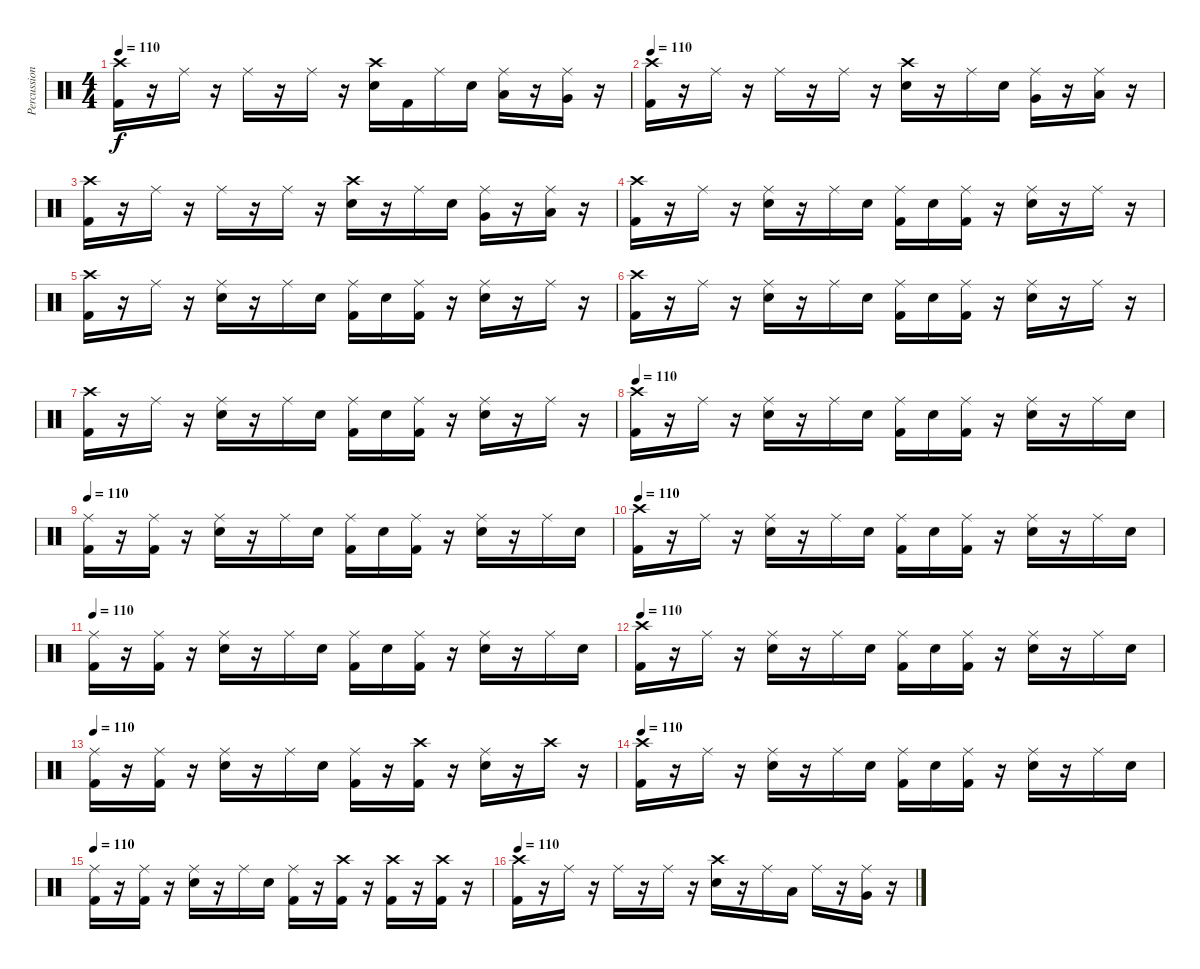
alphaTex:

\track ("Percussion" "Percussion") {instrument percussion}
\staff {score}
\articulation defaults
\ts (4 4)
\tempo 110
\clef neutral
\ks c
("Crash high (hit)" "Kick (hit) 2").16{dy f} r.16 "Ride (middle)".16 r.16 "Ride (middle)".16 r.16 "Ride (middle)".16 r.16 ("Crash high (hit)" "Electric Snare (hit)").16 "Kick (hit) 2".16 "Ride (middle)".16 "Electric Snare (hit)".16 ("Ride (middle)" "Low Tom (hit)").16 r.16 ("Ride (middle)" "Very Low Tom (hit)").16 r.16 |
\tempo 110
("Crash high (hit)" "Kick (hit) 2").16 r.16 "Ride (middle)".16 r.16 "Ride (middle)".16 r.16 "Ride (middle)".16 r.16 ("Crash high (hit)" "Electric Snare (hit)").16 r.16 "Ride (middle)".16 "Electric Snare (hit)".16 ("Ride (middle)" "Very Low Tom (hit)").16 r.16 ("Ride (middle)" "Low Floor Tom (hit)").16 r.16 |
("Crash high (hit)" "Kick (hit) 2").16 r.16 "Ride (middle)".16 r.16 "Ride (middle)".16 r.16 "Ride (middle)".16 r.16 ("Crash high (hit)" "Electric Snare (hit)").16 r.16 "Ride (middle)".16 "Electric Snare (hit)".16 ("Ride (middle)" "Very Low Tom (hit)").16 r.16 ("Ride (middle)" "Low Floor Tom (hit)").16 r.16 |
("Crash high (hit)" "Kick (hit) 2").16 r.16 "Ride (middle)".16 r.16 ("Ride (middle)" "Electric Snare (hit)").16 r.16 "Ride (middle)".16 "Electric Snare (hit)".16 ("Ride (middle)" "Kick (hit) 2").16 "Electric Snare (hit)".16 ("Ride (middle)" "Kick (hit) 2").16 r.16 ("Ride (middle)" "Electric Snare (hit)").16 r.16 "Ride (middle)".16 r.16 |
("Crash high (hit)" "Kick (hit) 2").16 r.16 "Ride (middle)".16 r.16 ("Ride (middle)" "Electric Snare (hit)").16 r.16 "Ride (middle)".16 "Electric Snare (hit)".16 ("Ride (middle)" "Kick (hit) 2").16 "Electric Snare (hit)".16 ("Ride (middle)" "Kick (hit) 2").16 r.16 ("Ride (middle)" "Electric Snare (hit)").16 r.16 "Ride (middle)".16 r.16 |
("Crash high (hit)" "Kick (hit) 2").16 r.16 "Ride (middle)".16 r.16 ("Ride (middle)" "Electric Snare (hit)").16 r.16 "Ride (middle)".16 "Electric Snare (hit)".16 ("Ride (middle)" "Kick (hit) 2").16 "Electric Snare (hit)".16 ("Ride (middle)" "Kick (hit) 2").16 r.16 ("Ride (middle)" "Electric Snare (hit)").16 r.16 "Ride (middle)".16 r.16 |
("Crash high (hit)" "Kick (hit) 2").16 r.16 "Ride (middle)".16 r.16 ("Ride (middle)" "Electric Snare (hit)").16 r.16 "Ride (middle)".16 "Electric Snare (hit)".16 ("Ride (middle)" "Kick (hit) 2").16 "Electric Snare (hit)".16 ("Ride (middle)" "Kick (hit) 2").16 r.16 ("Ride (middle)" "Electric Snare (hit)").16 r.16 "Ride (middle)".16 r.16 |
\tempo 110
("Crash high (hit)" "Kick (hit) 2").16 r.16 "Ride (middle)".16 r.16 ("Ride (middle)" "Electric Snare (hit)").16 r.16 "Ride (middle)".16 "Electric Snare (hit)".16 ("Ride (middle)" "Kick (hit) 2").16 "Electric Snare (hit)".16 ("Ride (middle)" "Kick (hit) 2").16 r.16 ("Ride (middle)" "Electric Snare (hit)").16 r.16 "Ride (middle)".16 "Electric Snare (hit)".16 |
\tempo 110
("Ride (middle)" "Kick (hit) 2").16 r.16 ("Ride (middle)" "Kick (hit) 2").16 r.16 ("Ride (middle)" "Electric Snare (hit)").16 r.16 "Ride (middle)".16 "Electric Snare (hit)".16 ("Ride (middle)" "Kick (hit) 2").16 "Electric Snare (hit)".16 ("Ride (middle)" "Kick (hit) 2").16 r.16 ("Ride (middle)" "Electric Snare (hit)").16 r.16 "Ride (middle)".16 "Electric Snare (hit)".16 |
\tempo 110
("Crash high (hit)" "Kick (hit) 2").16 r.16 "Ride (middle)".16 r.16 ("Ride (middle)" "Electric Snare (hit)").16 r.16 "Ride (middle)".16 "Electric Snare (hit)".16 ("Ride (middle)" "Kick (hit) 2").16 "Electric Snare (hit)".16 ("Ride (middle)" "Kick (hit) 2").16 r.16 ("Ride (middle)" "Electric Snare (hit)").16 r.16 "Ride (middle)".16 "Electric Snare (hit)".16 |
\tempo 110
("Ride (middle)" "Kick (hit) 2").16 r.16 ("Ride (middle)" "Kick (hit) 2").16 r.16 ("Ride (middle)" "Electric Snare (hit)").16 r.16 "Ride (middle)".16 "Electric Snare (hit)".16 ("Ride (middle)" "Kick (hit) 2").16 "Electric Snare (hit)".16 ("Ride (middle)" "Kick (hit) 2").16 r.16 ("Ride (middle)" "Electric Snare (hit)").16 r.16 "Ride (middle)".16 "Electric Snare (hit)".16 |
\tempo 110
("Crash high (hit)" "Kick (hit) 2").16 r.16 "Ride (middle)".16 r.16 ("Ride (middle)" "Electric Snare (hit)").16 r.16 "Ride (middle)".16 "Electric Snare (hit)".16 ("Ride (middle)" "Kick (hit) 2").16 "Electric Snare (hit)".16 ("Ride (middle)" "Kick (hit) 2").16 r.16 ("Ride (middle)" "Electric Snare (hit)").16 r.16 "Ride (middle)".16 "Electric Snare (hit)".16 |
\tempo 110
("Ride (middle)" "Kick (hit) 2").16 r.16 ("Ride (middle)" "Kick (hit) 2").16 r.16 ("Ride (middle)" "Electric Snare (hit)").16 r.16 "Ride (middle)".16 "Electric Snare (hit)".16 ("Ride (middle)" "Kick (hit) 2").16 r.16 ("Crash high (hit)" "Kick (hit) 2").16 r.16 ("Ride (middle)" "Electric Snare (hit)").16 r.16 "Crash high (hit)".16 r.16 |
\tempo 110
("Crash high (hit)" "Kick (hit) 2").16 r.16 "Ride (middle)".16 r.16 ("Ride (middle)" "Electric Snare (hit)").16 r.16 "Ride (middle)".16 "Electric Snare (hit)".16 ("Ride (middle)" "Kick (hit) 2").16 "Electric Snare (hit)".16 ("Ride (middle)" "Kick (hit) 2").16 r.16 ("Ride (middle)" "Electric Snare (hit)").16 r.16 "Ride (middle)".16 "Electric Snare (hit)".16 |
\tempo 110
("Ride (middle)" "Kick (hit) 2").16 r.16 ("Ride (middle)" "Kick (hit) 2").16 r.16 ("Ride (middle)" "Electric Snare (hit)").16 r.16 "Ride (middle)".16 "Electric Snare (hit)".16 ("Ride (middle)" "Kick (hit) 2").16 r.16 ("Crash high (hit)" "Kick (hit) 2").16 r.16 ("Crash high (hit)" "Kick (hit) 2").16 r.16 ("Crash high (hit)" "Kick (hit) 2").16 r.16 |
\tempo 110
("Crash high (hit)" "Kick (hit) 2").16 r.16 "Ride (middle)".16 r.16 "Ride (middle)".16 r.16 "Ride (middle)".16 r.16 ("Crash high (hit)" "Electric Snare (hit)").16 r.16 "Ride (middle)".16 "Low Tom (hit)".16 "Ride (middle)".16 r.16 ("Ride (middle)" "Very Low Tom (hit)").16 r.16
